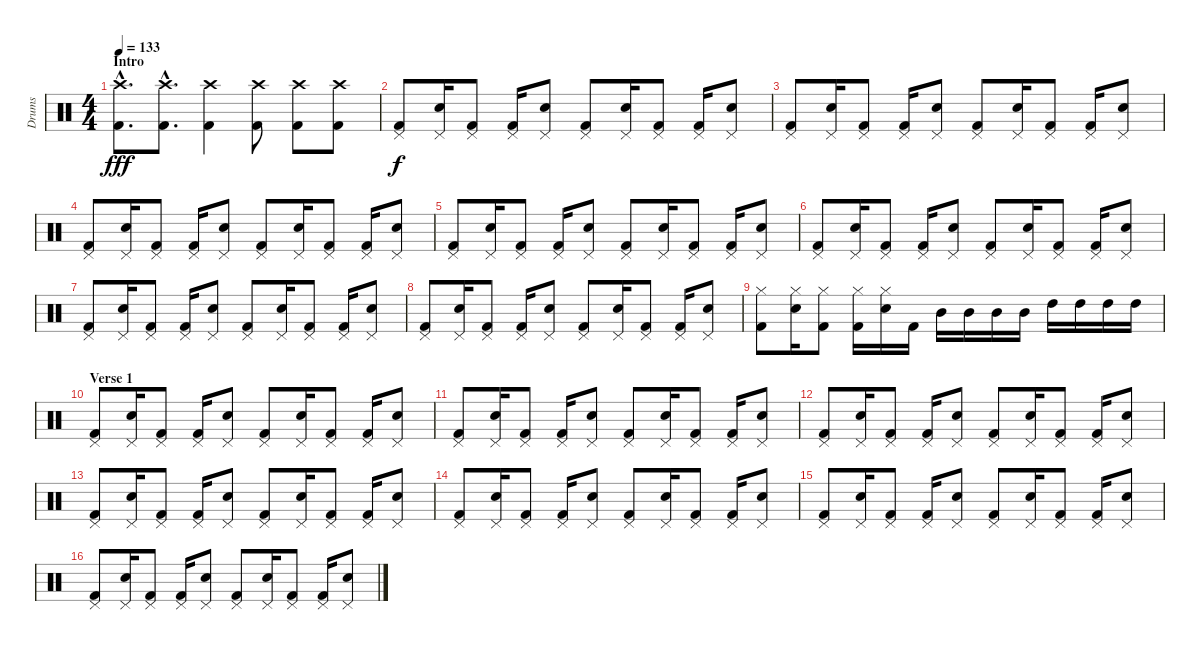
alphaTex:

\track ("Drums" "Drums") {instrument percussion}
\staff {score}
\articulation defaults
\ts (4 4)
\section ("" "Intro")
\tempo 133
\clef neutral
\ks c
("Crash high (hit)"{hac} "Kick (hit) 2"{hac}).8{d dy fff} ("Crash high (hit)"{hac} "Kick (hit) 2"{hac}).8{d} ("Crash high (hit)" "Kick (hit) 2").4 ("Crash high (hit)" "Kick (hit) 2").8 ("Crash high (hit)" "Kick (hit) 2").8 ("Crash high (hit)" "Kick (hit) 2").8 |
("Pedal Hi-Hat (hit)" "Kick (hit) 2").8{dy f} ("Pedal Hi-Hat (hit)" "Electric Snare (hit)").16 ("Pedal Hi-Hat (hit)" "Kick (hit) 2").8 ("Pedal Hi-Hat (hit)" "Kick (hit) 2").16 ("Pedal Hi-Hat (hit)" "Electric Snare (hit)").8 ("Pedal Hi-Hat (hit)" "Kick (hit) 2").8 ("Pedal Hi-Hat (hit)" "Electric Snare (hit)").16 ("Pedal Hi-Hat (hit)" "Kick (hit) 2").8 ("Pedal Hi-Hat (hit)" "Kick (hit) 2").16 ("Pedal Hi-Hat (hit)" "Electric Snare (hit)").8 |
("Pedal Hi-Hat (hit)" "Kick (hit) 2").8 ("Pedal Hi-Hat (hit)" "Electric Snare (hit)").16 ("Pedal Hi-Hat (hit)" "Kick (hit) 2").8 ("Pedal Hi-Hat (hit)" "Kick (hit) 2").16 ("Pedal Hi-Hat (hit)" "Electric Snare (hit)").8 ("Pedal Hi-Hat (hit)" "Kick (hit) 2").8 ("Pedal Hi-Hat (hit)" "Electric Snare (hit)").16 ("Pedal Hi-Hat (hit)" "Kick (hit) 2").8 ("Pedal Hi-Hat (hit)" "Kick (hit) 2").16 ("Pedal Hi-Hat (hit)" "Electric Snare (hit)").8 |
("Pedal Hi-Hat (hit)" "Kick (hit) 2").8 ("Pedal Hi-Hat (hit)" "Electric Snare (hit)").16 ("Pedal Hi-Hat (hit)" "Kick (hit) 2").8 ("Pedal Hi-Hat (hit)" "Kick (hit) 2").16 ("Pedal Hi-Hat (hit)" "Electric Snare (hit)").8 ("Pedal Hi-Hat (hit)" "Kick (hit) 2").8 ("Pedal Hi-Hat (hit)" "Electric Snare (hit)").16 ("Pedal Hi-Hat (hit)" "Kick (hit) 2").8 ("Pedal Hi-Hat (hit)" "Kick (hit) 2").16 ("Pedal Hi-Hat (hit)" "Electric Snare (hit)").8 |
("Pedal Hi-Hat (hit)" "Kick (hit) 2").8 ("Pedal Hi-Hat (hit)" "Electric Snare (hit)").16 ("Pedal Hi-Hat (hit)" "Kick (hit) 2").8 ("Pedal Hi-Hat (hit)" "Kick (hit) 2").16 ("Pedal Hi-Hat (hit)" "Electric Snare (hit)").8 ("Pedal Hi-Hat (hit)" "Kick (hit) 2").8 ("Pedal Hi-Hat (hit)" "Electric Snare (hit)").16 ("Pedal Hi-Hat (hit)" "Kick (hit) 2").8 ("Pedal Hi-Hat (hit)" "Kick (hit) 2").16 ("Pedal Hi-Hat (hit)" "Electric Snare (hit)").8 |
("Pedal Hi-Hat (hit)" "Kick (hit) 2").8 ("Pedal Hi-Hat (hit)" "Electric Snare (hit)").16 ("Pedal Hi-Hat (hit)" "Kick (hit) 2").8 ("Pedal Hi-Hat (hit)" "Kick (hit) 2").16 ("Pedal Hi-Hat (hit)" "Electric Snare (hit)").8 ("Pedal Hi-Hat (hit)" "Kick (hit) 2").8 ("Pedal Hi-Hat (hit)" "Electric Snare (hit)").16 ("Pedal Hi-Hat (hit)" "Kick (hit) 2").8 ("Pedal Hi-Hat (hit)" "Kick (hit) 2").16 ("Pedal Hi-Hat (hit)" "Electric Snare (hit)").8 |
("Pedal Hi-Hat (hit)" "Kick (hit) 2").8 ("Pedal Hi-Hat (hit)" "Electric Snare (hit)").16 ("Pedal Hi-Hat (hit)" "Kick (hit) 2").8 ("Pedal Hi-Hat (hit)" "Kick (hit) 2").16 ("Pedal Hi-Hat (hit)" "Electric Snare (hit)").8 ("Pedal Hi-Hat (hit)" "Kick (hit) 2").8 ("Pedal Hi-Hat (hit)" "Electric Snare (hit)").16 ("Pedal Hi-Hat (hit)" "Kick (hit) 2").8 ("Pedal Hi-Hat (hit)" "Kick (hit) 2").16 ("Pedal Hi-Hat (hit)" "Electric Snare (hit)").8 |
("Pedal Hi-Hat (hit)" "Kick (hit) 2").8 ("Pedal Hi-Hat (hit)" "Electric Snare (hit)").16 ("Pedal Hi-Hat (hit)" "Kick (hit) 2").8 ("Pedal Hi-Hat (hit)" "Kick (hit) 2").16 ("Pedal Hi-Hat (hit)" "Electric Snare (hit)").8 ("Pedal Hi-Hat (hit)" "Kick (hit) 2").8 ("Pedal Hi-Hat (hit)" "Electric Snare (hit)").16 ("Pedal Hi-Hat (hit)" "Kick (hit) 2").8 ("Pedal Hi-Hat (hit)" "Kick (hit) 2").16 ("Pedal Hi-Hat (hit)" "Electric Snare (hit)").8 |
("Hi-Hat (closed)" "Kick (hit) 2").8 ("Hi-Hat (closed)" "Electric Snare (hit)").16 ("Hi-Hat (closed)" "Kick (hit) 2").8 ("Hi-Hat (closed)" "Kick (hit) 2").16 ("Hi-Hat (closed)" "Electric Snare (hit)").16 "Kick (hit) 2".16 "Mid Tom (hit)".16 "Mid Tom (hit)".16 "Mid Tom (hit)".16 "Mid Tom (hit)".16 "High Tom (hit)".16 "High Tom (hit)".16 "High Tom (hit)".16 "High Tom (hit)".16 |
\section ("" "Verse 1")
("Pedal Hi-Hat (hit)" "Kick (hit) 2").8 ("Pedal Hi-Hat (hit)" "Electric Snare (hit)").16 ("Pedal Hi-Hat (hit)" "Kick (hit) 2").8 ("Pedal Hi-Hat (hit)" "Kick (hit) 2").16 ("Pedal Hi-Hat (hit)" "Electric Snare (hit)").8 ("Pedal Hi-Hat (hit)" "Kick (hit) 2").8 ("Pedal Hi-Hat (hit)" "Electric Snare (hit)").16 ("Pedal Hi-Hat (hit)" "Kick (hit) 2").8 ("Pedal Hi-Hat (hit)" "Kick (hit) 2").16 ("Pedal Hi-Hat (hit)" "Electric Snare (hit)").8 |
("Pedal Hi-Hat (hit)" "Kick (hit) 2").8 ("Pedal Hi-Hat (hit)" "Electric Snare (hit)").16 ("Pedal Hi-Hat (hit)" "Kick (hit) 2").8 ("Pedal Hi-Hat (hit)" "Kick (hit) 2").16 ("Pedal Hi-Hat (hit)" "Electric Snare (hit)").8 ("Pedal Hi-Hat (hit)" "Kick (hit) 2").8 ("Pedal Hi-Hat (hit)" "Electric Snare (hit)").16 ("Pedal Hi-Hat (hit)" "Kick (hit) 2").8 ("Pedal Hi-Hat (hit)" "Kick (hit) 2").16 ("Pedal Hi-Hat (hit)" "Electric Snare (hit)").8 |
("Pedal Hi-Hat (hit)" "Kick (hit) 2").8 ("Pedal Hi-Hat (hit)" "Electric Snare (hit)").16 ("Pedal Hi-Hat (hit)" "Kick (hit) 2").8 ("Pedal Hi-Hat (hit)" "Kick (hit) 2").16 ("Pedal Hi-Hat (hit)" "Electric Snare (hit)").8 ("Pedal Hi-Hat (hit)" "Kick (hit) 2").8 ("Pedal Hi-Hat (hit)" "Electric Snare (hit)").16 ("Pedal Hi-Hat (hit)" "Kick (hit) 2").8 ("Pedal Hi-Hat (hit)" "Kick (hit) 2").16 ("Pedal Hi-Hat (hit)" "Electric Snare (hit)").8 |
("Pedal Hi-Hat (hit)" "Kick (hit) 2").8 ("Pedal Hi-Hat (hit)" "Electric Snare (hit)").16 ("Pedal Hi-Hat (hit)" "Kick (hit) 2").8 ("Pedal Hi-Hat (hit)" "Kick (hit) 2").16 ("Pedal Hi-Hat (hit)" "Electric Snare (hit)").8 ("Pedal Hi-Hat (hit)" "Kick (hit) 2").8 ("Pedal Hi-Hat (hit)" "Electric Snare (hit)").16 ("Pedal Hi-Hat (hit)" "Kick (hit) 2").8 ("Pedal Hi-Hat (hit)" "Kick (hit) 2").16 ("Pedal Hi-Hat (hit)" "Electric Snare (hit)").8 |
("Pedal Hi-Hat (hit)" "Kick (hit) 2").8 ("Pedal Hi-Hat (hit)" "Electric Snare (hit)").16 ("Pedal Hi-Hat (hit)" "Kick (hit) 2").8 ("Pedal Hi-Hat (hit)" "Kick (hit) 2").16 ("Pedal Hi-Hat (hit)" "Electric Snare (hit)").8 ("Pedal Hi-Hat (hit)" "Kick (hit) 2").8 ("Pedal Hi-Hat (hit)" "Electric Snare (hit)").16 ("Pedal Hi-Hat (hit)" "Kick (hit) 2").8 ("Pedal Hi-Hat (hit)" "Kick (hit) 2").16 ("Pedal Hi-Hat (hit)" "Electric Snare (hit)").8 |
("Pedal Hi-Hat (hit)" "Kick (hit) 2").8 ("Pedal Hi-Hat (hit)" "Electric Snare (hit)").16 ("Pedal Hi-Hat (hit)" "Kick (hit) 2").8 ("Pedal Hi-Hat (hit)" "Kick (hit) 2").16 ("Pedal Hi-Hat (hit)" "Electric Snare (hit)").8 ("Pedal Hi-Hat (hit)" "Kick (hit) 2").8 ("Pedal Hi-Hat (hit)" "Electric Snare (hit)").16 ("Pedal Hi-Hat (hit)" "Kick (hit) 2").8 ("Pedal Hi-Hat (hit)" "Kick (hit) 2").16 ("Pedal Hi-Hat (hit)" "Electric Snare (hit)").8 |
("Pedal Hi-Hat (hit)" "Kick (hit) 2").8 ("Pedal Hi-Hat (hit)" "Electric Snare (hit)").16 ("Pedal Hi-Hat (hit)" "Kick (hit) 2").8 ("Pedal Hi-Hat (hit)" "Kick (hit) 2").16 ("Pedal Hi-Hat (hit)" "Electric Snare (hit)").8 ("Pedal Hi-Hat (hit)" "Kick (hit) 2").8 ("Pedal Hi-Hat (hit)" "Electric Snare (hit)").16 ("Pedal Hi-Hat (hit)" "Kick (hit) 2").8 ("Pedal Hi-Hat (hit)" "Kick (hit) 2").16 ("Pedal Hi-Hat (hit)" "Electric Snare (hit)").8
